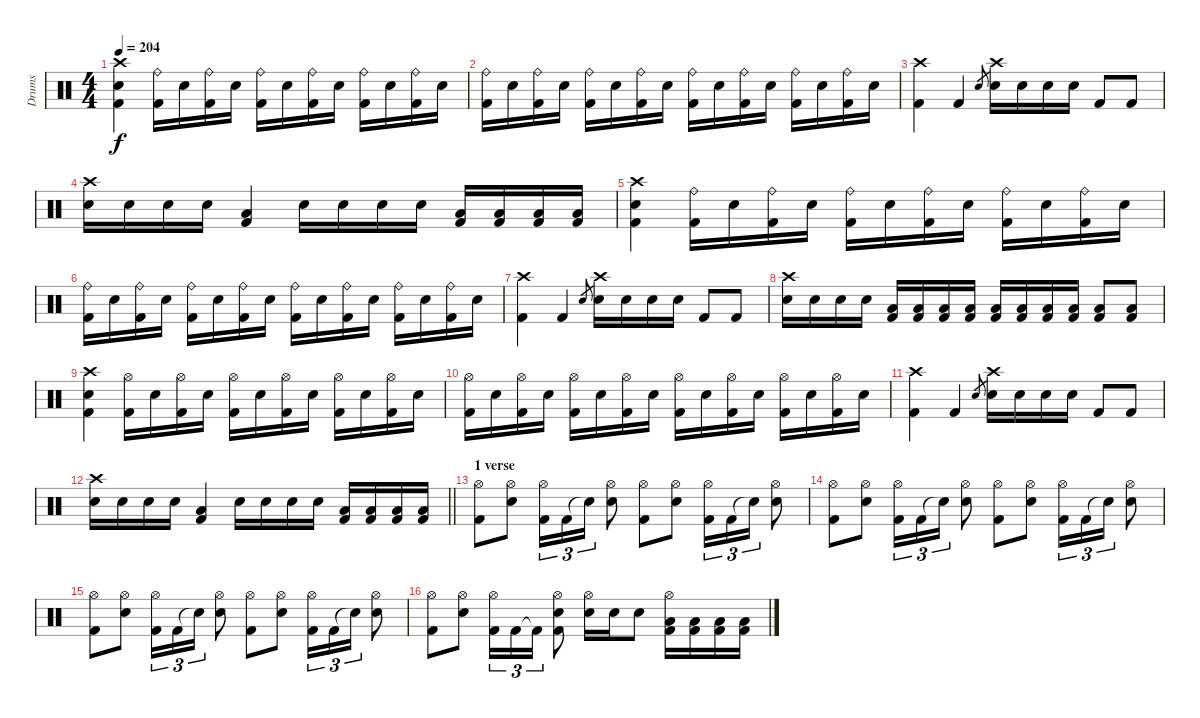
\track ("Drums" "Drums") {instrument percussion}
\staff {score}
\articulation defaults
\ts (4 4)
\tempo 204
\clef neutral
\ks c
("Crash high (hit)" "Snare (hit) 2" "Kick (hit) 2").4{dy f} ("Ride (bell)" "Kick (hit) 2").16 "Snare (hit) 2".16 ("Ride (bell)" "Kick (hit) 2").16 "Snare (hit) 2".16 ("Ride (bell)" "Kick (hit) 2").16 "Snare (hit) 2".16 ("Ride (bell)" "Kick (hit) 2").16 "Snare (hit) 2".16 ("Ride (bell)" "Kick (hit) 2").16 "Snare (hit) 2".16 ("Ride (bell)" "Kick (hit) 2").16 "Snare (hit) 2".16 |
("Ride (bell)" "Kick (hit) 2").16 "Snare (hit) 2".16 ("Ride (bell)" "Kick (hit) 2").16 "Snare (hit) 2".16 ("Ride (bell)" "Kick (hit) 2").16 "Snare (hit) 2".16 ("Ride (bell)" "Kick (hit) 2").16 "Snare (hit) 2".16 ("Ride (bell)" "Kick (hit) 2").16 "Snare (hit) 2".16 ("Ride (bell)" "Kick (hit) 2").16 "Snare (hit) 2".16 ("Ride (bell)" "Kick (hit) 2").16 "Snare (hit) 2".16 ("Ride (bell)" "Kick (hit) 2").16 "Snare (hit) 2".16 |
("Crash high (hit)" "Kick (hit) 2").4 "Kick (hit) 2".4 "Snare (hit) 2".8{gr} ("Crash high (hit)" "Snare (hit) 2").16 "Snare (hit) 2".16 "Snare (hit) 2".16 "Snare (hit) 2".16 "Kick (hit) 2".8 "Kick (hit) 2".8 |
("Crash high (hit)" "Snare (hit) 2").16 "Snare (hit) 2".16 "Snare (hit) 2".16 "Snare (hit) 2".16 ("Low Floor Tom (hit)" "Kick (hit) 2").4 "Snare (hit) 2".16 "Snare (hit) 2".16 "Snare (hit) 2".16 "Snare (hit) 2".16 ("Low Floor Tom (hit)" "Kick (hit) 2").16 ("Low Floor Tom (hit)" "Kick (hit) 2").16 ("Low Floor Tom (hit)" "Kick (hit) 2").16 ("Low Floor Tom (hit)" "Kick (hit) 2").16 |
("Crash high (hit)" "Snare (hit) 2" "Kick (hit) 2").4 ("Ride (bell)" "Kick (hit) 2").16 "Snare (hit) 2".16 ("Ride (bell)" "Kick (hit) 2").16 "Snare (hit) 2".16 ("Ride (bell)" "Kick (hit) 2").16 "Snare (hit) 2".16 ("Ride (bell)" "Kick (hit) 2").16 "Snare (hit) 2".16 ("Ride (bell)" "Kick (hit) 2").16 "Snare (hit) 2".16 ("Ride (bell)" "Kick (hit) 2").16 "Snare (hit) 2".16 |
("Ride (bell)" "Kick (hit) 2").16 "Snare (hit) 2".16 ("Ride (bell)" "Kick (hit) 2").16 "Snare (hit) 2".16 ("Ride (bell)" "Kick (hit) 2").16 "Snare (hit) 2".16 ("Ride (bell)" "Kick (hit) 2").16 "Snare (hit) 2".16 ("Ride (bell)" "Kick (hit) 2").16 "Snare (hit) 2".16 ("Ride (bell)" "Kick (hit) 2").16 "Snare (hit) 2".16 ("Ride (bell)" "Kick (hit) 2").16 "Snare (hit) 2".16 ("Ride (bell)" "Kick (hit) 2").16 "Snare (hit) 2".16 |
("Crash high (hit)" "Kick (hit) 2").4 "Kick (hit) 2".4 "Snare (hit) 2".8{gr} ("Crash high (hit)" "Snare (hit) 2").16 "Snare (hit) 2".16 "Snare (hit) 2".16 "Snare (hit) 2".16 "Kick (hit) 2".8 "Kick (hit) 2".8 |
("Crash high (hit)" "Snare (hit) 2").16 "Snare (hit) 2".16 "Snare (hit) 2".16 "Snare (hit) 2".16 ("Low Tom (hit)" "Kick (hit) 2").16 ("Low Floor Tom (hit)" "Kick (hit) 2").16 ("Low Floor Tom (hit)" "Kick (hit) 2").16 ("Low Floor Tom (hit)" "Kick (hit) 2").16 ("Low Tom (hit)" "Kick (hit) 2").16 ("Low Floor Tom (hit)" "Kick (hit) 2").16 ("Low Floor Tom (hit)" "Kick (hit) 2").16 ("Low Floor Tom (hit)" "Kick (hit) 2").16 ("Low Floor Tom (hit)" "Kick (hit) 2").8 ("Low Floor Tom (hit)" "Kick (hit) 2").8 |
("Crash high (hit)" "Snare (hit) 2" "Kick (hit) 2").4 ("Hi-Hat (open)" "Kick (hit) 2").16 "Snare (hit) 2".16 ("Hi-Hat (open)" "Kick (hit) 2").16 "Snare (hit) 2".16 ("Hi-Hat (open)" "Kick (hit) 2").16 "Snare (hit) 2".16 ("Hi-Hat (open)" "Kick (hit) 2").16 "Snare (hit) 2".16 ("Hi-Hat (open)" "Kick (hit) 2").16 "Snare (hit) 2".16 ("Hi-Hat (open)" "Kick (hit) 2").16 "Snare (hit) 2".16 |
("Hi-Hat (open)" "Kick (hit) 2").16 "Snare (hit) 2".16 ("Hi-Hat (open)" "Kick (hit) 2").16 "Snare (hit) 2".16 ("Hi-Hat (open)" "Kick (hit) 2").16 "Snare (hit) 2".16 ("Hi-Hat (open)" "Kick (hit) 2").16 "Snare (hit) 2".16 ("Hi-Hat (open)" "Kick (hit) 2").16 "Snare (hit) 2".16 ("Hi-Hat (open)" "Kick (hit) 2").16 "Snare (hit) 2".16 ("Hi-Hat (open)" "Kick (hit) 2").16 "Snare (hit) 2".16 ("Hi-Hat (open)" "Kick (hit) 2").16 "Snare (hit) 2".16 |
("Crash high (hit)" "Kick (hit) 2").4 "Kick (hit) 2".4 "Snare (hit) 2".8{gr} ("Crash high (hit)" "Snare (hit) 2").16 "Snare (hit) 2".16 "Snare (hit) 2".16 "Snare (hit) 2".16 "Kick (hit) 2".8 "Kick (hit) 2".8 |
\barLineRight lightlight
("Crash high (hit)" "Snare (hit) 2").16 "Snare (hit) 2".16 "Snare (hit) 2".16 "Snare (hit) 2".16 ("Low Floor Tom (hit)" "Kick (hit) 2").4 "Snare (hit) 2".16 "Snare (hit) 2".16 "Snare (hit) 2".16 "Snare (hit) 2".16 ("Low Floor Tom (hit)" "Kick (hit) 2").16 ("Low Floor Tom (hit)" "Kick (hit) 2").16 ("Low Floor Tom (hit)" "Kick (hit) 2").16 ("Low Floor Tom (hit)" "Kick (hit) 2").16 |
\section ("" "1 verse")
("Hi-Hat (open)" "Kick (hit) 2").8 ("Snare (hit) 2" "Hi-Hat (open)").8 ("Hi-Hat (open)" "Kick (hit) 2").16{tu (3 2)} "Kick (hit) 2".16{tu (3 2)} "Snare (hit)"{t}.16{tu (3 2)} ("Hi-Hat (open)" "Snare (hit) 2").8 ("Kick (hit) 2" "Hi-Hat (open)").8 ("Hi-Hat (open)" "Snare (hit) 2").8 ("Hi-Hat (open)" "Kick (hit) 2").16{tu (3 2)} "Kick (hit) 2".16{tu (3 2)} "Snare (hit) 2"{t}.16{tu (3 2)} ("Snare (hit) 2" "Hi-Hat (open)").8 |
("Hi-Hat (open)" "Kick (hit) 2").8 ("Snare (hit) 2" "Hi-Hat (open)").8 ("Hi-Hat (open)" "Kick (hit) 2").16{tu (3 2)} "Kick (hit) 2".16{tu (3 2)} "Snare (hit)"{t}.16{tu (3 2)} ("Hi-Hat (open)" "Snare (hit) 2").8 ("Kick (hit) 2" "Hi-Hat (open)").8 ("Hi-Hat (open)" "Snare (hit) 2").8 ("Hi-Hat (open)" "Kick (hit) 2").16{tu (3 2)} "Kick (hit) 2".16{tu (3 2)} "Snare (hit) 2"{t}.16{tu (3 2)} ("Snare (hit) 2" "Hi-Hat (open)").8 |
("Hi-Hat (open)" "Kick (hit) 2").8 ("Snare (hit) 2" "Hi-Hat (open)").8 ("Hi-Hat (open)" "Kick (hit) 2").16{tu (3 2)} "Kick (hit) 2".16{tu (3 2)} "Snare (hit)"{t}.16{tu (3 2)} ("Hi-Hat (open)" "Snare (hit) 2").8 ("Kick (hit) 2" "Hi-Hat (open)").8 ("Hi-Hat (open)" "Snare (hit) 2").8 ("Hi-Hat (open)" "Kick (hit) 2").16{tu (3 2)} "Kick (hit) 2".16{tu (3 2)} "Snare (hit) 2"{t}.16{tu (3 2)} ("Snare (hit) 2" "Hi-Hat (open)").8 |
("Hi-Hat (open)" "Kick (hit) 2").8 ("Snare (hit) 2" "Hi-Hat (open)").8 ("Hi-Hat (open)" "Kick (hit) 2").16{tu (3 2)} "Kick (hit) 2".16{tu (3 2)} "Kick (hit) 2"{t}.16{tu (3 2)} ("Hi-Hat (open)" "Snare (hit) 2" "Kick (hit) 2").8 ("Hi-Hat (open)" "Snare (hit) 2").16 "Snare (hit) 2".16 "Snare (hit) 2".8 ("Hi-Hat (open)" "Low Floor Tom (hit)" "Kick (hit) 2").16 ("Low Floor Tom (hit)" "Kick (hit) 2").16 ("Low Floor Tom (hit)" "Kick (hit) 2").16 ("Low Floor Tom (hit)" "Kick (hit) 2").16
